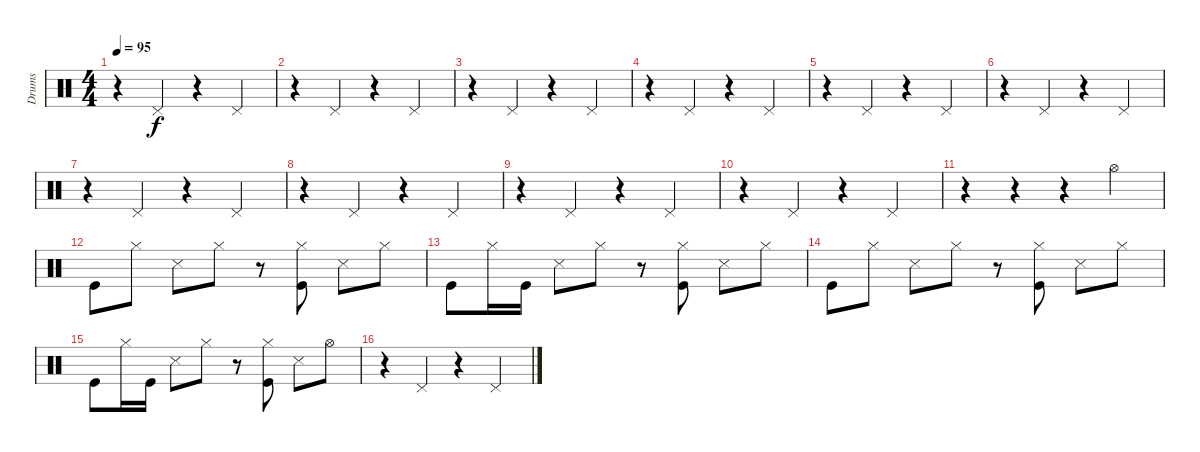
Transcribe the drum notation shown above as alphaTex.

\track ("Drums" "Drums") {instrument percussion}
\staff {score}
\articulation defaults
\ts (4 4)
\tempo 95
\clef neutral
\ks c
r.4{dy f} "Pedal Hi-Hat (hit)".4 r.4 "Pedal Hi-Hat (hit)".4 |
r.4 "Pedal Hi-Hat (hit)".4 r.4 "Pedal Hi-Hat (hit)".4 |
r.4 "Pedal Hi-Hat (hit)".4 r.4 "Pedal Hi-Hat (hit)".4 |
r.4 "Pedal Hi-Hat (hit)".4 r.4 "Pedal Hi-Hat (hit)".4 |
r.4 "Pedal Hi-Hat (hit)".4 r.4 "Pedal Hi-Hat (hit)".4 |
r.4 "Pedal Hi-Hat (hit)".4 r.4 "Pedal Hi-Hat (hit)".4 |
r.4 "Pedal Hi-Hat (hit)".4 r.4 "Pedal Hi-Hat (hit)".4 |
r.4 "Pedal Hi-Hat (hit)".4 r.4 "Pedal Hi-Hat (hit)".4 |
r.4 "Pedal Hi-Hat (hit)".4 r.4 "Pedal Hi-Hat (hit)".4 |
r.4 "Pedal Hi-Hat (hit)".4 r.4 "Pedal Hi-Hat (hit)".4 |
r.4 r.4 r.4 "Hi-Hat (open)".4 |
"Kick (hit)".8 "Hi-Hat (closed)".8 "Snare (side stick) 3".8 "Hi-Hat (closed)".8 r.8 ("Hi-Hat (closed)" "Kick (hit)").8 "Snare (side stick) 3".8 "Hi-Hat (closed)".8 |
"Kick (hit)".8 "Hi-Hat (closed)".16 "Kick (hit)".16 "Snare (side stick) 3".8 "Hi-Hat (closed)".8 r.8 ("Hi-Hat (closed)" "Kick (hit)").8 "Snare (side stick) 3".8 "Hi-Hat (closed)".8 |
"Kick (hit)".8 "Hi-Hat (closed)".8 "Snare (side stick) 3".8 "Hi-Hat (closed)".8 r.8 ("Hi-Hat (closed)" "Kick (hit)").8 "Snare (side stick) 3".8 "Hi-Hat (closed)".8 |
"Kick (hit)".8 "Hi-Hat (closed)".16 "Kick (hit)".16 "Snare (side stick) 3".8 "Hi-Hat (closed)".8 r.8 ("Hi-Hat (closed)" "Kick (hit)").8 "Snare (side stick) 3".8 "Hi-Hat (open)".8 |
r.4 "Pedal Hi-Hat (hit)".4 r.4 "Pedal Hi-Hat (hit)".4
